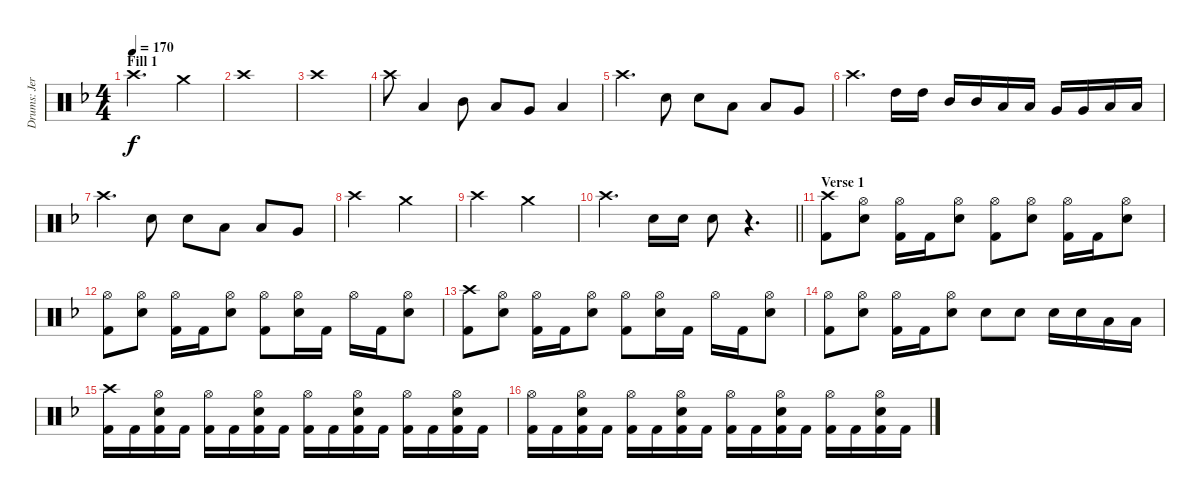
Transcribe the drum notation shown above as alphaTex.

\track ("Drums: Jere Luokkamäki" "Drums: Jer") {instrument percussion}
\staff {score}
\articulation defaults
\ts (4 4)
\section ("" "Fill 1")
\tempo 170
\clef neutral
\ks dminor "Crash high (hit)".2{d dy f} "Crash medium (hit)".4
|
"Crash high (hit)".1 |
"Crash high (hit)".1 |
"Crash high (hit)".8 "Low Tom (hit)".4 "Mid Tom (hit)".8 "Low Tom (hit)".8 "Very Low Tom (hit)".8 "Low Floor Tom (hit)".4 |
"Crash high (hit)".4{d} "Electric Snare (hit)".8 "Electric Snare (hit)".8 "Low Tom (hit)".8 "Low Tom (hit)".8 "Very Low Tom (hit)".8 |
"Crash high (hit)".4{d} "High Tom (hit)".16 "High Tom (hit)".16 "Mid Tom (hit)".16 "Mid Tom (hit)".16 "Low Tom (hit)".16 "Low Tom (hit)".16 "Very Low Tom (hit)".16 "Very Low Tom (hit)".16 "Low Tom (hit)".16 "Low Tom (hit)".16 |
"Crash high (hit)".4{d} "Electric Snare (hit)".8 "Electric Snare (hit)".8 "Low Tom (hit)".8 "Low Tom (hit)".8 "Very Low Tom (hit)".8 |
"Crash high (hit)".2 "Crash medium (hit)".2 |
"Crash high (hit)".2 "Crash medium (hit)".2 |
\barLineRight lightlight "Crash high (hit)".4{d} "Electric Snare (hit)".16 "Electric Snare (hit)".16 "Electric Snare (hit)".8
r.4{d} |
\section ("" "Verse 1")
("Crash high (hit)" "Kick (hit) 2").8 ("Hi-Hat (open)" "Electric Snare (hit)").8 ("Hi-Hat (open)" "Kick (hit) 2").16 "Kick (hit) 2".16 ("Hi-Hat (open)" "Electric Snare (hit)").8 ("Hi-Hat (open)" "Kick (hit) 2").8 ("Hi-Hat (open)" "Electric Snare (hit)").8 ("Hi-Hat (open)" "Kick (hit) 2").16 "Kick (hit) 2".16 ("Hi-Hat (open)" "Electric Snare (hit)").8 |
("Hi-Hat (open)" "Kick (hit) 2").8 ("Hi-Hat (open)" "Electric Snare (hit)").8 ("Hi-Hat (open)" "Kick (hit) 2").16 "Kick (hit) 2".16 ("Hi-Hat (open)" "Electric Snare (hit)").8 ("Hi-Hat (open)" "Kick (hit) 2").8 ("Hi-Hat (open)" "Electric Snare (hit)").16 "Kick (hit) 2".16 "Hi-Hat (open)".16 "Kick (hit) 2".16 ("Hi-Hat (open)" "Electric Snare (hit)").8 |
("Crash high (hit)" "Kick (hit) 2").8 ("Hi-Hat (open)" "Electric Snare (hit)").8 ("Hi-Hat (open)" "Kick (hit) 2").16 "Kick (hit) 2".16 ("Hi-Hat (open)" "Electric Snare (hit)").8 ("Hi-Hat (open)" "Kick (hit) 2").8 ("Hi-Hat (open)" "Electric Snare (hit)").16 "Kick (hit) 2".16 "Hi-Hat (open)".16 "Kick (hit) 2".16 ("Hi-Hat (open)" "Electric Snare (hit)").8 |
("Hi-Hat (open)" "Kick (hit) 2").8 ("Hi-Hat (open)" "Electric Snare (hit)").8 ("Hi-Hat (open)" "Kick (hit) 2").16 "Kick (hit) 2".16 ("Hi-Hat (open)" "Electric Snare (hit)").8 "Electric Snare (hit)".8 "Electric Snare (hit)".8 "Electric Snare (hit)".16 "Electric Snare (hit)".16 "Low Tom (hit)".16 "Low Tom (hit)".16 |
("Crash high (hit)" "Kick (hit) 2").16 "Kick (hit) 2".16 ("Hi-Hat (open)" "Electric Snare (hit)" "Kick (hit) 2").16 "Kick (hit) 2".16 ("Hi-Hat (open)" "Kick (hit) 2").16 "Kick (hit) 2".16 ("Hi-Hat (open)" "Electric Snare (hit)" "Kick (hit) 2").16 "Kick (hit) 2".16 ("Hi-Hat (open)" "Kick (hit) 2").16 "Kick (hit) 2".16 ("Hi-Hat (open)" "Electric Snare (hit)" "Kick (hit) 2").16 "Kick (hit) 2".16 ("Hi-Hat (open)" "Kick (hit) 2").16 "Kick (hit) 2".16 ("Hi-Hat (open)" "Electric Snare (hit)" "Kick (hit) 2").16 "Kick (hit) 2".16 |
("Hi-Hat (open)" "Kick (hit) 2").16 "Kick (hit) 2".16 ("Hi-Hat (open)" "Electric Snare (hit)" "Kick (hit) 2").16 "Kick (hit) 2".16 ("Hi-Hat (open)" "Kick (hit) 2").16 "Kick (hit) 2".16 ("Hi-Hat (open)" "Electric Snare (hit)" "Kick (hit) 2").16 "Kick (hit) 2".16 ("Hi-Hat (open)" "Kick (hit) 2").16 "Kick (hit) 2".16 ("Hi-Hat (open)" "Electric Snare (hit)" "Kick (hit) 2").16 "Kick (hit) 2".16 ("Hi-Hat (open)" "Kick (hit) 2").16 "Kick (hit) 2".16 ("Hi-Hat (open)" "Electric Snare (hit)" "Kick (hit) 2").16 "Kick (hit) 2".16
